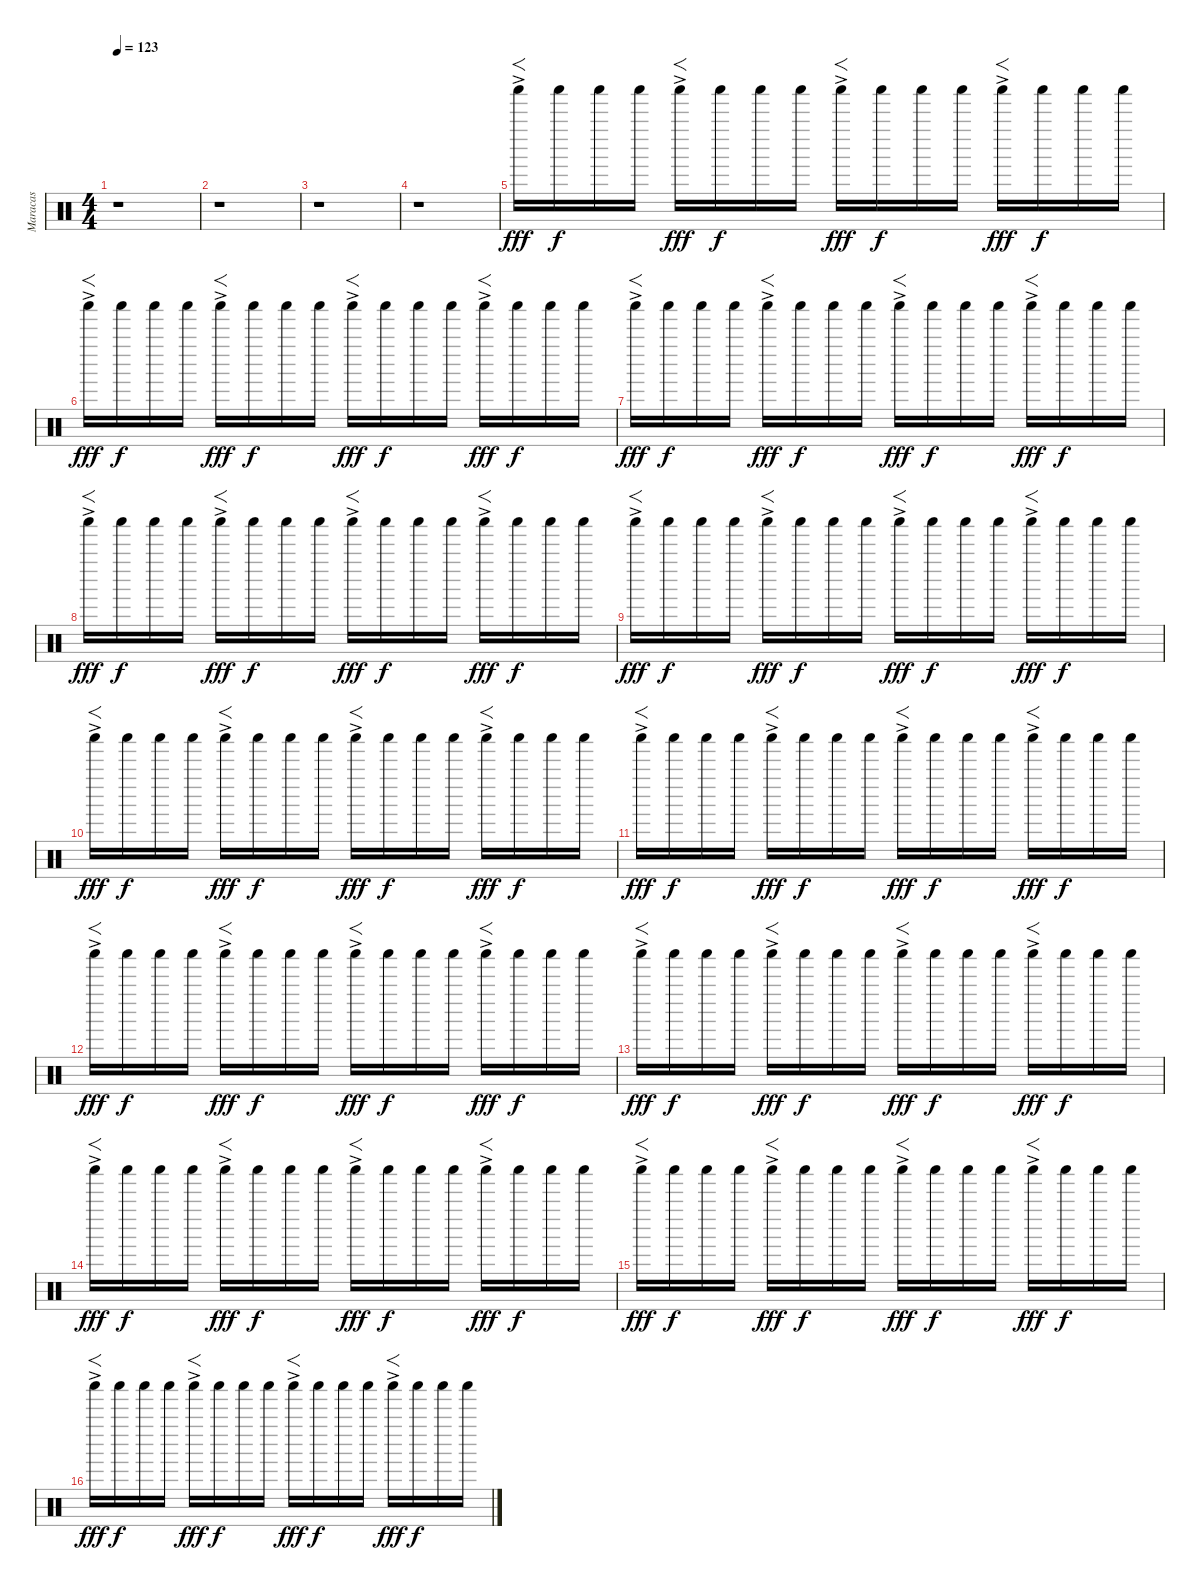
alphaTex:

\track ("Maracas" "Maracas") {instrument percussion}
\staff {score}
\articulation defaults
\ts (4 4)
\tempo 123
\clef neutral
\ks c
r.1{dy fff} |
r.1 |
r.1 |
r.1 |
"Shaker (hit)"{ac}.16{f} "Shaker (hit)".16{dy f} "Shaker (hit)".16 "Shaker (hit)".16 "Shaker (hit)"{ac}.16{f dy fff} "Shaker (hit)".16{dy f} "Shaker (hit)".16 "Shaker (hit)".16 "Shaker (hit)"{ac}.16{f dy fff} "Shaker (hit)".16{dy f} "Shaker (hit)".16 "Shaker (hit)".16 "Shaker (hit)"{ac}.16{f dy fff} "Shaker (hit)".16{dy f} "Shaker (hit)".16 "Shaker (hit)".16 |
"Shaker (hit)"{ac}.16{f dy fff} "Shaker (hit)".16{dy f} "Shaker (hit)".16 "Shaker (hit)".16 "Shaker (hit)"{ac}.16{f dy fff} "Shaker (hit)".16{dy f} "Shaker (hit)".16 "Shaker (hit)".16 "Shaker (hit)"{ac}.16{f dy fff} "Shaker (hit)".16{dy f} "Shaker (hit)".16 "Shaker (hit)".16 "Shaker (hit)"{ac}.16{f dy fff} "Shaker (hit)".16{dy f} "Shaker (hit)".16 "Shaker (hit)".16 |
"Shaker (hit)"{ac}.16{f dy fff} "Shaker (hit)".16{dy f} "Shaker (hit)".16 "Shaker (hit)".16 "Shaker (hit)"{ac}.16{f dy fff} "Shaker (hit)".16{dy f} "Shaker (hit)".16 "Shaker (hit)".16 "Shaker (hit)"{ac}.16{f dy fff} "Shaker (hit)".16{dy f} "Shaker (hit)".16 "Shaker (hit)".16 "Shaker (hit)"{ac}.16{f dy fff} "Shaker (hit)".16{dy f} "Shaker (hit)".16 "Shaker (hit)".16 |
"Shaker (hit)"{ac}.16{f dy fff} "Shaker (hit)".16{dy f} "Shaker (hit)".16 "Shaker (hit)".16 "Shaker (hit)"{ac}.16{f dy fff} "Shaker (hit)".16{dy f} "Shaker (hit)".16 "Shaker (hit)".16 "Shaker (hit)"{ac}.16{f dy fff} "Shaker (hit)".16{dy f} "Shaker (hit)".16 "Shaker (hit)".16 "Shaker (hit)"{ac}.16{f dy fff} "Shaker (hit)".16{dy f} "Shaker (hit)".16 "Shaker (hit)".16 |
"Shaker (hit)"{ac}.16{f dy fff} "Shaker (hit)".16{dy f} "Shaker (hit)".16 "Shaker (hit)".16 "Shaker (hit)"{ac}.16{f dy fff} "Shaker (hit)".16{dy f} "Shaker (hit)".16 "Shaker (hit)".16 "Shaker (hit)"{ac}.16{f dy fff} "Shaker (hit)".16{dy f} "Shaker (hit)".16 "Shaker (hit)".16 "Shaker (hit)"{ac}.16{f dy fff} "Shaker (hit)".16{dy f} "Shaker (hit)".16 "Shaker (hit)".16 |
"Shaker (hit)"{ac}.16{f dy fff} "Shaker (hit)".16{dy f} "Shaker (hit)".16 "Shaker (hit)".16 "Shaker (hit)"{ac}.16{f dy fff} "Shaker (hit)".16{dy f} "Shaker (hit)".16 "Shaker (hit)".16 "Shaker (hit)"{ac}.16{f dy fff} "Shaker (hit)".16{dy f} "Shaker (hit)".16 "Shaker (hit)".16 "Shaker (hit)"{ac}.16{f dy fff} "Shaker (hit)".16{dy f} "Shaker (hit)".16 "Shaker (hit)".16 |
"Shaker (hit)"{ac}.16{f dy fff} "Shaker (hit)".16{dy f} "Shaker (hit)".16 "Shaker (hit)".16 "Shaker (hit)"{ac}.16{f dy fff} "Shaker (hit)".16{dy f} "Shaker (hit)".16 "Shaker (hit)".16 "Shaker (hit)"{ac}.16{f dy fff} "Shaker (hit)".16{dy f} "Shaker (hit)".16 "Shaker (hit)".16 "Shaker (hit)"{ac}.16{f dy fff} "Shaker (hit)".16{dy f} "Shaker (hit)".16 "Shaker (hit)".16 |
"Shaker (hit)"{ac}.16{f dy fff} "Shaker (hit)".16{dy f} "Shaker (hit)".16 "Shaker (hit)".16 "Shaker (hit)"{ac}.16{f dy fff} "Shaker (hit)".16{dy f} "Shaker (hit)".16 "Shaker (hit)".16 "Shaker (hit)"{ac}.16{f dy fff} "Shaker (hit)".16{dy f} "Shaker (hit)".16 "Shaker (hit)".16 "Shaker (hit)"{ac}.16{f dy fff} "Shaker (hit)".16{dy f} "Shaker (hit)".16 "Shaker (hit)".16 |
"Shaker (hit)"{ac}.16{f dy fff} "Shaker (hit)".16{dy f} "Shaker (hit)".16 "Shaker (hit)".16 "Shaker (hit)"{ac}.16{f dy fff} "Shaker (hit)".16{dy f} "Shaker (hit)".16 "Shaker (hit)".16 "Shaker (hit)"{ac}.16{f dy fff} "Shaker (hit)".16{dy f} "Shaker (hit)".16 "Shaker (hit)".16 "Shaker (hit)"{ac}.16{f dy fff} "Shaker (hit)".16{dy f} "Shaker (hit)".16 "Shaker (hit)".16 |
"Shaker (hit)"{ac}.16{f dy fff} "Shaker (hit)".16{dy f} "Shaker (hit)".16 "Shaker (hit)".16 "Shaker (hit)"{ac}.16{f dy fff} "Shaker (hit)".16{dy f} "Shaker (hit)".16 "Shaker (hit)".16 "Shaker (hit)"{ac}.16{f dy fff} "Shaker (hit)".16{dy f} "Shaker (hit)".16 "Shaker (hit)".16 "Shaker (hit)"{ac}.16{f dy fff} "Shaker (hit)".16{dy f} "Shaker (hit)".16 "Shaker (hit)".16 |
"Shaker (hit)"{ac}.16{f dy fff} "Shaker (hit)".16{dy f} "Shaker (hit)".16 "Shaker (hit)".16 "Shaker (hit)"{ac}.16{f dy fff} "Shaker (hit)".16{dy f} "Shaker (hit)".16 "Shaker (hit)".16 "Shaker (hit)"{ac}.16{f dy fff} "Shaker (hit)".16{dy f} "Shaker (hit)".16 "Shaker (hit)".16 "Shaker (hit)"{ac}.16{f dy fff} "Shaker (hit)".16{dy f} "Shaker (hit)".16 "Shaker (hit)".16 |
"Shaker (hit)"{ac}.16{f dy fff} "Shaker (hit)".16{dy f} "Shaker (hit)".16 "Shaker (hit)".16 "Shaker (hit)"{ac}.16{f dy fff} "Shaker (hit)".16{dy f} "Shaker (hit)".16 "Shaker (hit)".16 "Shaker (hit)"{ac}.16{f dy fff} "Shaker (hit)".16{dy f} "Shaker (hit)".16 "Shaker (hit)".16 "Shaker (hit)"{ac}.16{f dy fff} "Shaker (hit)".16{dy f} "Shaker (hit)".16 "Shaker (hit)".16
